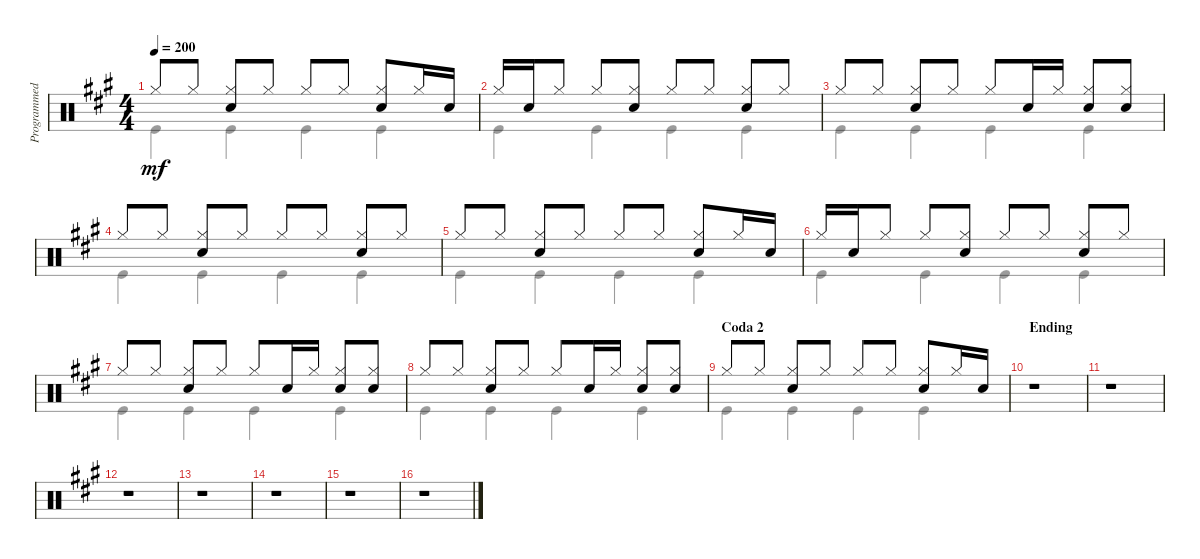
\track ("Programmed Drums" "Programmed") {instrument percussion}
\staff {score}
\articulation defaults
\voice
\ts (4 4)
\tempo 200
\clef neutral
\ks a "Hi-Hat (closed)".8{dy mf} "Hi-Hat (closed)".8
("Hi-Hat (closed)" "Snare (hit) 2").8 "Hi-Hat (closed)".8 "Hi-Hat (closed)".8 "Hi-Hat (closed)".8 ("Hi-Hat (closed)" "Snare (hit) 2").8 "Hi-Hat (closed)".16 "Snare (hit) 2".16 |
"Hi-Hat (closed)".16 "Snare (hit) 2".16 "Hi-Hat (closed)".8 "Hi-Hat (closed)".8 ("Hi-Hat (closed)" "Snare (hit) 2").8 "Hi-Hat (closed)".8 "Hi-Hat (closed)".8 ("Hi-Hat (closed)" "Snare (hit) 2").8 "Hi-Hat (closed)".8 |
"Hi-Hat (closed)".8 "Hi-Hat (closed)".8 ("Hi-Hat (closed)" "Snare (hit) 2").8 "Hi-Hat (closed)".8 "Hi-Hat (closed)".8 "Snare (hit) 2".16 "Hi-Hat (closed)".16 ("Hi-Hat (closed)" "Snare (hit) 2").8 ("Hi-Hat (closed)" "Snare (hit) 2").8 |
"Hi-Hat (closed)".8 "Hi-Hat (closed)".8 ("Hi-Hat (closed)" "Snare (hit) 2").8 "Hi-Hat (closed)".8 "Hi-Hat (closed)".8 "Hi-Hat (closed)".8 ("Hi-Hat (closed)" "Snare (hit) 2").8 "Hi-Hat (closed)".8 |
"Hi-Hat (closed)".8 "Hi-Hat (closed)".8 ("Hi-Hat (closed)" "Snare (hit) 2").8 "Hi-Hat (closed)".8 "Hi-Hat (closed)".8 "Hi-Hat (closed)".8 ("Hi-Hat (closed)" "Snare (hit) 2").8 "Hi-Hat (closed)".16 "Snare (hit) 2".16 |
"Hi-Hat (closed)".16 "Snare (hit) 2".16 "Hi-Hat (closed)".8 "Hi-Hat (closed)".8 ("Hi-Hat (closed)" "Snare (hit) 2").8 "Hi-Hat (closed)".8 "Hi-Hat (closed)".8 ("Hi-Hat (closed)" "Snare (hit) 2").8 "Hi-Hat (closed)".8 |
"Hi-Hat (closed)".8 "Hi-Hat (closed)".8 ("Hi-Hat (closed)" "Snare (hit) 2").8 "Hi-Hat (closed)".8 "Hi-Hat (closed)".8 "Snare (hit) 2".16 "Hi-Hat (closed)".16 ("Hi-Hat (closed)" "Snare (hit) 2").8 ("Hi-Hat (closed)" "Snare (hit) 2").8 |
"Hi-Hat (closed)".8 "Hi-Hat (closed)".8 ("Hi-Hat (closed)" "Snare (hit) 2").8 "Hi-Hat (closed)".8 "Hi-Hat (closed)".8 "Snare (hit) 2".16 "Hi-Hat (closed)".16 ("Hi-Hat (closed)" "Snare (hit) 2").8 ("Hi-Hat (closed)" "Snare (hit) 2").8 |
\section ("" "Coda 2")
"Hi-Hat (closed)".8 "Hi-Hat (closed)".8 ("Hi-Hat (closed)" "Snare (hit) 2").8 "Hi-Hat (closed)".8 "Hi-Hat (closed)".8 "Hi-Hat (closed)".8 ("Hi-Hat (closed)" "Snare (hit) 2").8 "Hi-Hat (closed)".16 "Snare (hit) 2".16 |
\section ("" "Ending")
r.1 |
r.1 |
r.1 |
r.1 |
r.1 |
r.1 |
r.1
\voice
\clef neutral
\ottava regular
\simile none
\ks a "Kick (hit)".4{dy mf} "Kick (hit)".4 "Kick (hit)".4 "Kick (hit)".4
|
"Kick (hit)".4 "Kick (hit)".4 "Kick (hit)".4 "Kick (hit)".4 |
"Kick (hit)".4 "Kick (hit)".4 "Kick (hit)".4 "Kick (hit)".4 |
"Kick (hit)".4 "Kick (hit)".4 "Kick (hit)".4 "Kick (hit)".4 |
"Kick (hit)".4 "Kick (hit)".4 "Kick (hit)".4 "Kick (hit)".4 |
"Kick (hit)".4 "Kick (hit)".4 "Kick (hit)".4 "Kick (hit)".4 |
"Kick (hit)".4 "Kick (hit)".4 "Kick (hit)".4 "Kick (hit)".4 |
"Kick (hit)".4 "Kick (hit)".4 "Kick (hit)".4 "Kick (hit)".4 |
"Kick (hit)".4 "Kick (hit)".4 "Kick (hit)".4 "Kick (hit)".4 |
|
|
|
|
|
|
